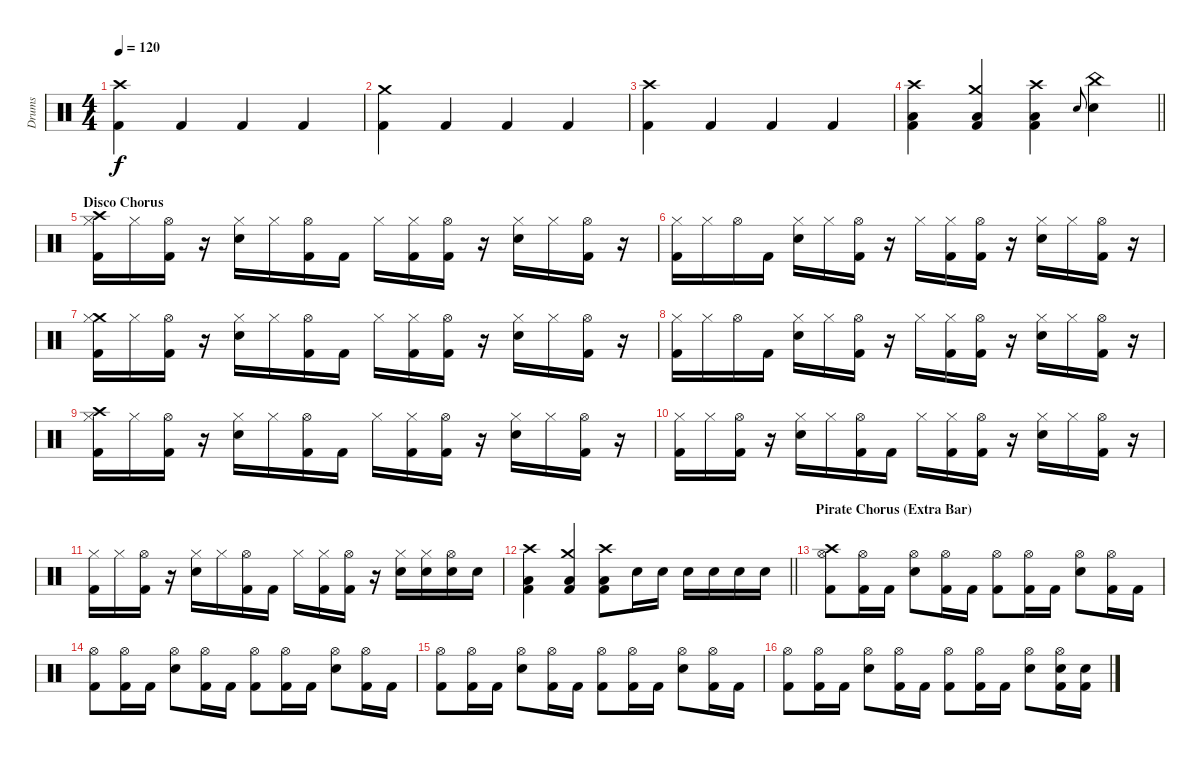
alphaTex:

\track ("Drums" "Drums") {instrument percussion}
\staff {score}
\articulation defaults
\ts (4 4)
\tempo 120
\clef neutral
\ks c
("Crash high (hit)" "Kick (hit) 2").4{dy f} "Kick (hit) 2".4 "Kick (hit) 2".4 "Kick (hit) 2".4 |
("Crash medium (hit)" "Kick (hit) 2").4 "Kick (hit) 2".4 "Kick (hit) 2".4 "Kick (hit) 2".4 |
("Crash high (hit)" "Kick (hit) 2").4 "Kick (hit) 2".4 "Kick (hit) 2".4 "Kick (hit) 2".4 |
\barLineRight lightlight
("Crash high (hit)" "Low Floor Tom (hit)" "Kick (hit) 2").4 ("Crash medium (hit)" "Low Floor Tom (hit)" "Kick (hit) 2").4 ("Crash high (hit)" "Low Floor Tom (hit)" "Kick (hit) 2").4 "Snare (hit) 2".8{gr onbeat} ("China (hit)" "Snare (hit) 2").4 |
\section ("" "Disco Chorus")
("Crash high (hit)" "Hi-Hat (closed)" "Kick (hit) 2").16 "Hi-Hat (closed)".16 ("Hi-Hat (open)" "Kick (hit) 2").16 r.16 ("Hi-Hat (closed)" "Snare (hit) 2").16 "Hi-Hat (closed)".16 ("Hi-Hat (open)" "Kick (hit) 2").16 "Kick (hit) 2".16 "Hi-Hat (closed)".16 ("Hi-Hat (closed)" "Kick (hit) 2").16 ("Hi-Hat (open)" "Kick (hit) 2").16 r.16 ("Hi-Hat (closed)" "Snare (hit) 2").16 "Hi-Hat (closed)".16 ("Hi-Hat (open)" "Kick (hit) 2").16 r.16 |
("Hi-Hat (closed)" "Kick (hit) 2").16 "Hi-Hat (closed)".16 "Hi-Hat (open)".16 "Kick (hit) 2".16 ("Hi-Hat (closed)" "Snare (hit) 2").16 "Hi-Hat (closed)".16 ("Hi-Hat (open)" "Kick (hit) 2").16 r.16 "Hi-Hat (closed)".16 ("Hi-Hat (closed)" "Kick (hit) 2").16 ("Hi-Hat (open)" "Kick (hit) 2").16 r.16 ("Hi-Hat (closed)" "Snare (hit) 2").16 "Hi-Hat (closed)".16 ("Hi-Hat (open)" "Kick (hit) 2").16 r.16 |
("Crash medium (hit)" "Hi-Hat (closed)" "Kick (hit) 2").16 "Hi-Hat (closed)".16 ("Hi-Hat (open)" "Kick (hit) 2").16 r.16 ("Hi-Hat (closed)" "Snare (hit) 2").16 "Hi-Hat (closed)".16 ("Hi-Hat (open)" "Kick (hit) 2").16 "Kick (hit) 2".16 "Hi-Hat (closed)".16 ("Hi-Hat (closed)" "Kick (hit) 2").16 ("Hi-Hat (open)" "Kick (hit) 2").16 r.16 ("Hi-Hat (closed)" "Snare (hit) 2").16 "Hi-Hat (closed)".16 ("Hi-Hat (open)" "Kick (hit) 2").16 r.16 |
("Hi-Hat (closed)" "Kick (hit) 2").16 "Hi-Hat (closed)".16 "Hi-Hat (open)".16 "Kick (hit) 2".16 ("Hi-Hat (closed)" "Snare (hit) 2").16 "Hi-Hat (closed)".16 ("Hi-Hat (open)" "Kick (hit) 2").16 r.16 "Hi-Hat (closed)".16 ("Hi-Hat (closed)" "Kick (hit) 2").16 ("Hi-Hat (open)" "Kick (hit) 2").16 r.16 ("Hi-Hat (closed)" "Snare (hit) 2").16 "Hi-Hat (closed)".16 ("Hi-Hat (open)" "Kick (hit) 2").16 r.16 |
("Crash high (hit)" "Hi-Hat (closed)" "Kick (hit) 2").16 "Hi-Hat (closed)".16 ("Hi-Hat (open)" "Kick (hit) 2").16 r.16 ("Hi-Hat (closed)" "Snare (hit) 2").16 "Hi-Hat (closed)".16 ("Hi-Hat (open)" "Kick (hit) 2").16 "Kick (hit) 2".16 "Hi-Hat (closed)".16 ("Hi-Hat (closed)" "Kick (hit) 2").16 ("Hi-Hat (open)" "Kick (hit) 2").16 r.16 ("Hi-Hat (closed)" "Snare (hit) 2").16 "Hi-Hat (closed)".16 ("Hi-Hat (open)" "Kick (hit) 2").16 r.16 |
("Hi-Hat (closed)" "Kick (hit) 2").16 "Hi-Hat (closed)".16 ("Hi-Hat (open)" "Kick (hit) 2").16 r.16 ("Hi-Hat (closed)" "Snare (hit) 2").16 "Hi-Hat (closed)".16 ("Hi-Hat (open)" "Kick (hit) 2").16 "Kick (hit) 2".16 "Hi-Hat (closed)".16 ("Hi-Hat (closed)" "Kick (hit) 2").16 ("Hi-Hat (open)" "Kick (hit) 2").16 r.16 ("Hi-Hat (closed)" "Snare (hit) 2").16 "Hi-Hat (closed)".16 ("Hi-Hat (open)" "Kick (hit) 2").16 r.16 |
("Hi-Hat (closed)" "Kick (hit) 2").16 "Hi-Hat (closed)".16 ("Hi-Hat (open)" "Kick (hit) 2").16 r.16 ("Hi-Hat (closed)" "Snare (hit) 2").16 "Hi-Hat (closed)".16 ("Hi-Hat (open)" "Kick (hit) 2").16 "Kick (hit) 2".16 "Hi-Hat (closed)".16 ("Hi-Hat (closed)" "Kick (hit) 2").16 ("Hi-Hat (open)" "Kick (hit) 2").16 r.16 ("Hi-Hat (closed)" "Snare (hit) 2").16 ("Hi-Hat (closed)" "Snare (hit) 2").16 ("Hi-Hat (open)" "Snare (hit) 2").16 "Snare (hit) 2".16 |
\barLineRight lightlight
("Crash high (hit)" "Low Floor Tom (hit)" "Kick (hit) 2").4 ("Crash medium (hit)" "Low Floor Tom (hit)" "Kick (hit) 2").4 ("Crash high (hit)" "Low Floor Tom (hit)" "Kick (hit) 2").8 "Snare (hit) 2".16 "Snare (hit) 2".16 "Snare (hit) 2".16 "Snare (hit) 2".16 "Snare (hit) 2".16 "Snare (hit) 2".16 |
\section ("" "Pirate Chorus (Extra Bar)")
("Crash high (hit)" "Hi-Hat (open)" "Kick (hit) 2").8 ("Hi-Hat (open)" "Kick (hit) 2").16 "Kick (hit) 2".16 ("Hi-Hat (open)" "Snare (hit) 2").8 ("Hi-Hat (open)" "Kick (hit) 2").16 "Kick (hit) 2".16 ("Hi-Hat (open)" "Kick (hit) 2").8 ("Hi-Hat (open)" "Kick (hit) 2").16 "Kick (hit) 2".16 ("Hi-Hat (open)" "Snare (hit) 2").8 ("Hi-Hat (open)" "Kick (hit) 2").16 "Kick (hit) 2".16 |
("Hi-Hat (open)" "Kick (hit) 2").8 ("Hi-Hat (open)" "Kick (hit) 2").16 "Kick (hit) 2".16 ("Hi-Hat (open)" "Snare (hit) 2").8 ("Hi-Hat (open)" "Kick (hit) 2").16 "Kick (hit) 2".16 ("Hi-Hat (open)" "Kick (hit) 2").8 ("Hi-Hat (open)" "Kick (hit) 2").16 "Kick (hit) 2".16 ("Hi-Hat (open)" "Snare (hit) 2").8 ("Hi-Hat (open)" "Kick (hit) 2").16 "Kick (hit) 2".16 |
("Hi-Hat (open)" "Kick (hit) 2").8 ("Hi-Hat (open)" "Kick (hit) 2").16 "Kick (hit) 2".16 ("Hi-Hat (open)" "Snare (hit) 2").8 ("Hi-Hat (open)" "Kick (hit) 2").16 "Kick (hit) 2".16 ("Hi-Hat (open)" "Kick (hit) 2").8 ("Hi-Hat (open)" "Kick (hit) 2").16 "Kick (hit) 2".16 ("Hi-Hat (open)" "Snare (hit) 2").8 ("Hi-Hat (open)" "Kick (hit) 2").16 "Kick (hit) 2".16 |
("Hi-Hat (open)" "Kick (hit) 2").8 ("Hi-Hat (open)" "Kick (hit) 2").16 "Kick (hit) 2".16 ("Hi-Hat (open)" "Snare (hit) 2").8 ("Hi-Hat (open)" "Kick (hit) 2").16 "Kick (hit) 2".16 ("Hi-Hat (open)" "Kick (hit) 2").8 ("Hi-Hat (open)" "Kick (hit) 2").16 "Kick (hit) 2".16 ("Hi-Hat (open)" "Snare (hit) 2").8 ("Hi-Hat (open)" "Snare (hit) 2" "Kick (hit) 2").16 ("Snare (hit) 2" "Kick (hit) 2").16
